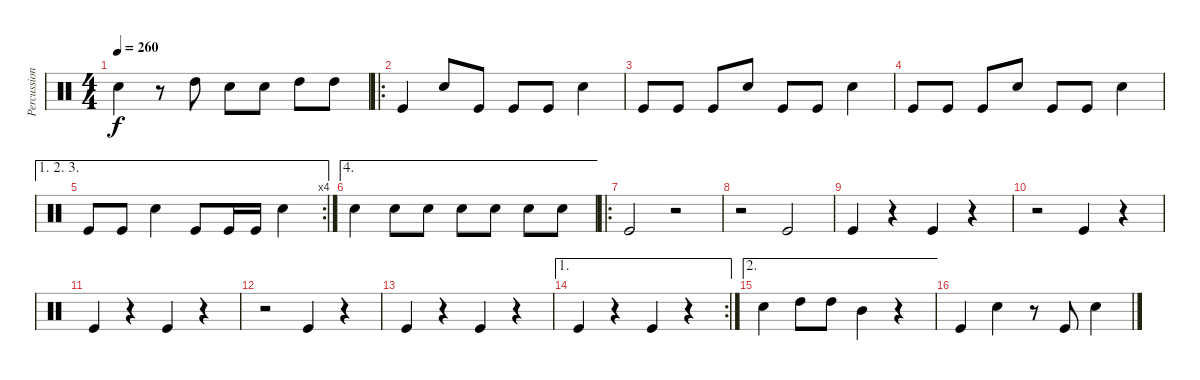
\track ("Percussion" "Percussion") {instrument percussion}
\staff {score}
\articulation defaults
\ts (4 4)
\tempo 260
\clef neutral
\ks c "Snare (hit) 2".4{dy f}
r.8 "High Tom (hit)".8 "Snare (hit) 2".8 "Snare (hit) 2".8 "High Tom (hit)".8 "High Tom (hit)".8 |
\ro "Kick (hit)".4 "Snare (hit) 2".8 "Kick (hit)".8 "Kick (hit)".8 "Kick (hit)".8 "Snare (hit) 2".4
|
"Kick (hit)".8 "Kick (hit)".8 "Kick (hit)".8 "Snare (hit) 2".8 "Kick (hit)".8 "Kick (hit)".8 "Snare (hit) 2".4 |
"Kick (hit)".8 "Kick (hit)".8 "Kick (hit)".8 "Snare (hit) 2".8 "Kick (hit)".8 "Kick (hit)".8 "Snare (hit) 2".4 |
\ae (1 2 3)
\rc 4 "Kick (hit)".8 "Kick (hit)".8 "Snare (hit) 2".4 "Kick (hit)".8 "Kick (hit)".16 "Kick (hit)".16 "Snare (hit) 2".4
|
\ae 4 "Snare (hit) 2".4 "Snare (hit) 2".8 "Snare (hit) 2".8 "Snare (hit) 2".8 "Snare (hit) 2".8 "Snare (hit) 2".8 "Snare (hit) 2".8
|
\ro "Kick (hit)".2
r.2 |
r.2 "Kick (hit)".2 |
"Kick (hit)".4 r.4 "Kick (hit)".4 r.4 |
r.2 "Kick (hit)".4 r.4 |
"Kick (hit)".4 r.4 "Kick (hit)".4 r.4 |
r.2 "Kick (hit)".4 r.4 |
"Kick (hit)".4 r.4 "Kick (hit)".4 r.4 |
\ae 1
\rc 2 "Kick (hit)".4
r.4 "Kick (hit)".4 r.4 |
\ae 2 "Snare (hit) 2".4 "High Tom (hit)".8 "High Tom (hit)".8 "Mid Tom (hit)".4
r.4 |
"Kick (hit)".4 "Snare (hit) 2".4 r.8 "Kick (hit)".8 "Snare (hit) 2".4
